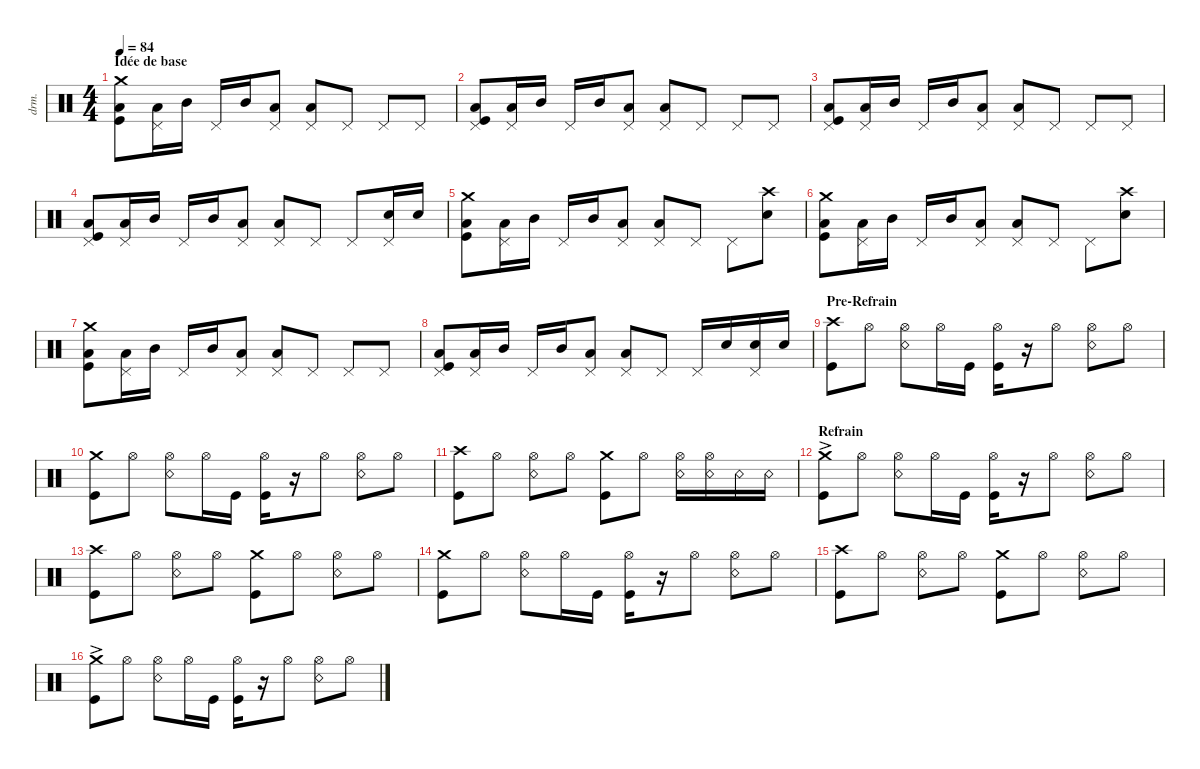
\defaultSystemsLayout 4
\hideDynamics
\bracketExtendMode nobrackets
\otherSystemsTrackNameOrientation horizontal
\track ("Drumkit" "drm.") {instrument percussion}
\staff {score}
\articulation defaults
\ts (4 4)
\section ("" "Idée de base")
\tempo 84
\clef neutral
\ks aminor
("Kick (hit)" "Low Tom (hit)" "Crash medium (hit)").8{dy f beam Down} ("Low Tom (hit)" "Pedal Hi-Hat (hit)").16{beam Down} "Mid Tom (hit)".16{beam Down} "Pedal Hi-Hat (hit)".16{beam Up} "Mid Tom (hit)".16{beam Up} ("Low Tom (hit)" "Pedal Hi-Hat (hit)").8{beam Up} ("Low Tom (hit)" "Pedal Hi-Hat (hit)").8{beam Up} "Pedal Hi-Hat (hit)".8{beam Up} "Pedal Hi-Hat (hit)".8{beam Up} "Pedal Hi-Hat (hit)".8{beam Up} |
("Kick (hit)" "Low Tom (hit)" "Pedal Hi-Hat (hit)").8{beam Up} ("Low Tom (hit)" "Pedal Hi-Hat (hit)").16{beam Up} "Mid Tom (hit)".16{beam Up} "Pedal Hi-Hat (hit)".16{beam Up} "Mid Tom (hit)".16{beam Up} ("Low Tom (hit)" "Pedal Hi-Hat (hit)").8{beam Up} ("Low Tom (hit)" "Pedal Hi-Hat (hit)").8{beam Up} "Pedal Hi-Hat (hit)".8{beam Up} "Pedal Hi-Hat (hit)".8{beam Up} "Pedal Hi-Hat (hit)".8{beam Up} |
("Kick (hit)" "Low Tom (hit)" "Pedal Hi-Hat (hit)").8{beam Up} ("Low Tom (hit)" "Pedal Hi-Hat (hit)").16{beam Up} "Mid Tom (hit)".16{beam Up} "Pedal Hi-Hat (hit)".16{beam Up} "Mid Tom (hit)".16{beam Up} ("Low Tom (hit)" "Pedal Hi-Hat (hit)").8{beam Up} ("Low Tom (hit)" "Pedal Hi-Hat (hit)").8{beam Up} "Pedal Hi-Hat (hit)".8{beam Up} "Pedal Hi-Hat (hit)".8{beam Up} "Pedal Hi-Hat (hit)".8{beam Up} |
("Kick (hit)" "Low Tom (hit)" "Pedal Hi-Hat (hit)").8{beam Up} ("Low Tom (hit)" "Pedal Hi-Hat (hit)").16{beam Up} "Mid Tom (hit)".16{beam Up} "Pedal Hi-Hat (hit)".16{beam Up} "Mid Tom (hit)".16{beam Up} ("Low Tom (hit)" "Pedal Hi-Hat (hit)").8{beam Up} ("Low Tom (hit)" "Pedal Hi-Hat (hit)").8{beam Up} "Pedal Hi-Hat (hit)".8{beam Up} "Pedal Hi-Hat (hit)".8{beam Up} ("Pedal Hi-Hat (hit)" "Snare (hit) 2").16{beam Up} "Snare (hit) 2".16{beam Up} |
("Kick (hit)" "Low Tom (hit)" "Crash medium (hit)").8{beam Down} ("Low Tom (hit)" "Pedal Hi-Hat (hit)").16{beam Down} "Mid Tom (hit)".16{beam Down} "Pedal Hi-Hat (hit)".16{beam Up} "Mid Tom (hit)".16{beam Up} ("Low Tom (hit)" "Pedal Hi-Hat (hit)").8{beam Up} ("Low Tom (hit)" "Pedal Hi-Hat (hit)").8{beam Up} "Pedal Hi-Hat (hit)".8{beam Up} "Pedal Hi-Hat (hit)".8{beam Down} ("Crash high (hit)" "Snare (hit) 2").8{beam Down} |
("Kick (hit)" "Low Tom (hit)" "Crash medium (hit)").8{beam Down} ("Low Tom (hit)" "Pedal Hi-Hat (hit)").16{beam Down} "Mid Tom (hit)".16{beam Down} "Pedal Hi-Hat (hit)".16{beam Up} "Mid Tom (hit)".16{beam Up} ("Low Tom (hit)" "Pedal Hi-Hat (hit)").8{beam Up} ("Low Tom (hit)" "Pedal Hi-Hat (hit)").8{beam Up} "Pedal Hi-Hat (hit)".8{beam Up} "Pedal Hi-Hat (hit)".8{beam Down} ("Crash high (hit)" "Snare (hit) 2").8{beam Down} |
("Kick (hit)" "Low Tom (hit)" "Crash medium (hit)").8{beam Down} ("Low Tom (hit)" "Pedal Hi-Hat (hit)").16{beam Down} "Mid Tom (hit)".16{beam Down} "Pedal Hi-Hat (hit)".16{beam Up} "Mid Tom (hit)".16{beam Up} ("Low Tom (hit)" "Pedal Hi-Hat (hit)").8{beam Up} ("Low Tom (hit)" "Pedal Hi-Hat (hit)").8{beam Up} "Pedal Hi-Hat (hit)".8{beam Up} "Pedal Hi-Hat (hit)".8{beam Up} "Pedal Hi-Hat (hit)".8{beam Up} |
("Kick (hit)" "Low Tom (hit)" "Pedal Hi-Hat (hit)").8{beam Up} ("Low Tom (hit)" "Pedal Hi-Hat (hit)").16{beam Up} "Mid Tom (hit)".16{beam Up} "Pedal Hi-Hat (hit)".16{beam Up} "Mid Tom (hit)".16{beam Up} ("Low Tom (hit)" "Pedal Hi-Hat (hit)").8{beam Up} ("Low Tom (hit)" "Pedal Hi-Hat (hit)").8{beam Up} "Pedal Hi-Hat (hit)".8{beam Up} "Pedal Hi-Hat (hit)".16{beam Up} "Snare (hit) 2".16{beam Up} ("Pedal Hi-Hat (hit)" "Snare (hit) 2").16{beam Up} "Snare (hit) 2".16{beam Up} |
\section ("" "Pre-Refrain")
("Kick (hit)" "Crash high (hit)").8{beam Down} "Hi-Hat (open)".8{beam Down} ("Hi-Hat (open)" "Snare (rim shot)").8{beam Down} "Hi-Hat (open)".16{beam Down} "Kick (hit)".16{beam Down} ("Hi-Hat (open)" "Kick (hit)").16{beam Down} r.16{beam Down} "Hi-Hat (open)".8{beam Down} ("Hi-Hat (open)" "Snare (rim shot)").8{beam Down} "Hi-Hat (open)".8{beam Down} |
("Kick (hit)" "Crash medium (hit)").8{beam Down} "Hi-Hat (open)".8{beam Down} ("Hi-Hat (open)" "Snare (rim shot)").8{beam Down} "Hi-Hat (open)".16{beam Down} "Kick (hit)".16{beam Down} ("Hi-Hat (open)" "Kick (hit)").16{beam Down} r.16{beam Down} "Hi-Hat (open)".8{beam Down} ("Hi-Hat (open)" "Snare (rim shot)").8{beam Down} "Hi-Hat (open)".8{beam Down} |
("Kick (hit)" "Crash high (hit)").8{beam Down} "Hi-Hat (open)".8{beam Down} ("Snare (rim shot)" "Hi-Hat (open)").8{beam Down} "Hi-Hat (open)".8{beam Down} ("Crash medium (hit)" "Kick (hit)").8{beam Down} "Hi-Hat (open)".8{beam Down} ("Hi-Hat (open)" "Snare (rim shot)").16{beam Down} ("Hi-Hat (open)" "Snare (rim shot)").16{beam Down} "Snare (rim shot)".16{beam Down} "Snare (rim shot)".16{beam Down} |
\section ("" "Refrain")
("Kick (hit)" "Crash medium (hit)"{ac}).8{beam Down} "Hi-Hat (open)".8{beam Down} ("Hi-Hat (open)" "Snare (rim shot)").8{beam Down} "Hi-Hat (open)".16{beam Down} "Kick (hit)".16{beam Down} ("Hi-Hat (open)" "Kick (hit)").16{beam Down} r.16{beam Down} "Hi-Hat (open)".8{beam Down} ("Hi-Hat (open)" "Snare (rim shot)").8{beam Down} "Hi-Hat (open)".8{beam Down} |
("Kick (hit)" "Crash high (hit)").8{beam Down} "Hi-Hat (open)".8{beam Down} ("Snare (rim shot)" "Hi-Hat (open)").8{beam Down} "Hi-Hat (open)".8{beam Down} ("Crash medium (hit)" "Kick (hit)").8{beam Down} "Hi-Hat (open)".8{beam Down} ("Hi-Hat (open)" "Snare (rim shot)").8{beam Down} "Hi-Hat (open)".8{beam Down} |
("Kick (hit)" "Crash medium (hit)").8{beam Down} "Hi-Hat (open)".8{beam Down} ("Hi-Hat (open)" "Snare (rim shot)").8{beam Down} "Hi-Hat (open)".16{beam Down} "Kick (hit)".16{beam Down} ("Hi-Hat (open)" "Kick (hit)").16{beam Down} r.16{beam Down} "Hi-Hat (open)".8{beam Down} ("Hi-Hat (open)" "Snare (rim shot)").8{beam Down} "Hi-Hat (open)".8{beam Down} |
("Kick (hit)" "Crash high (hit)").8{beam Down} "Hi-Hat (open)".8{beam Down} ("Snare (rim shot)" "Hi-Hat (open)").8{beam Down} "Hi-Hat (open)".8{beam Down} ("Crash medium (hit)" "Kick (hit)").8{beam Down} "Hi-Hat (open)".8{beam Down} ("Snare (rim shot)" "Hi-Hat (open)").8{beam Down} "Hi-Hat (open)".8{beam Down} |
("Kick (hit)" "Crash medium (hit)"{ac}).8{beam Down} "Hi-Hat (open)".8{beam Down} ("Hi-Hat (open)" "Snare (rim shot)").8{beam Down} "Hi-Hat (open)".16{beam Down} "Kick (hit)".16{beam Down} ("Hi-Hat (open)" "Kick (hit)").16{beam Down} r.16{beam Down} "Hi-Hat (open)".8{beam Down} ("Hi-Hat (open)" "Snare (rim shot)").8{beam Down} "Hi-Hat (open)".8{beam Down}
